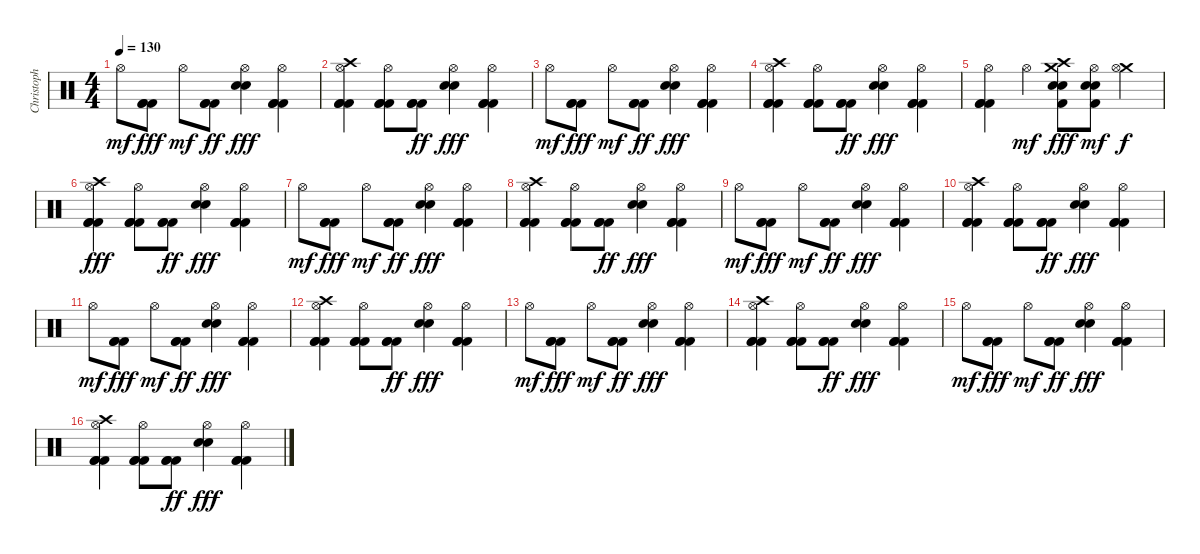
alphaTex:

\track ("Christoph Schneider" "Christoph ") {instrument percussion}
\staff {score}
\articulation defaults
\ts (4 4)
\tempo 130
\clef neutral
\ks c "Hi-Hat (open)".8{dy mf}
("Kick (hit) 2" "Kick (hit) 2" "Kick (hit) 2").8{dy fff} "Hi-Hat (open)".8{dy mf} ("Kick (hit) 2" "Kick (hit) 2" "Kick (hit) 2").8{dy ff} ("Hi-Hat (open)" "Snare (hit) 2" "Snare (hit) 2").4{dy fff} ("Hi-Hat (open)" "Kick (hit) 2" "Kick (hit) 2" "Kick (hit) 2").4 |
("Crash high (hit)" "Hi-Hat (open)" "Kick (hit) 2" "Kick (hit) 2" "Kick (hit) 2").4 ("Hi-Hat (open)" "Kick (hit) 2" "Kick (hit) 2" "Kick (hit) 2").8 ("Kick (hit) 2" "Kick (hit) 2" "Kick (hit) 2").8{dy ff} ("Hi-Hat (open)" "Snare (hit) 2" "Snare (hit) 2").4{dy fff} ("Hi-Hat (open)" "Kick (hit) 2" "Kick (hit) 2" "Kick (hit) 2").4 |
"Hi-Hat (open)".8{dy mf} ("Kick (hit) 2" "Kick (hit) 2" "Kick (hit) 2").8{dy fff} "Hi-Hat (open)".8{dy mf} ("Kick (hit) 2" "Kick (hit) 2" "Kick (hit) 2").8{dy ff} ("Hi-Hat (open)" "Snare (hit) 2" "Snare (hit) 2").4{dy fff} ("Hi-Hat (open)" "Kick (hit) 2" "Kick (hit) 2" "Kick (hit) 2").4 |
("Crash high (hit)" "Hi-Hat (open)" "Kick (hit) 2" "Kick (hit) 2" "Kick (hit) 2").4 ("Hi-Hat (open)" "Kick (hit) 2" "Kick (hit) 2" "Kick (hit) 2").8 ("Kick (hit) 2" "Kick (hit) 2" "Kick (hit) 2").8{dy ff} ("Hi-Hat (open)" "Snare (hit) 2" "Snare (hit) 2").4{dy fff} ("Hi-Hat (open)" "Kick (hit) 2" "Kick (hit) 2" "Kick (hit) 2").4 |
("Hi-Hat (open)" "Kick (hit) 2" "Kick (hit) 2" "Kick (hit) 2").4 "Hi-Hat (open)".4{dy mf} ("Crash medium (hit)" "Crash high (hit)" "Snare (hit) 2" "Snare (hit) 2" "Kick (hit) 2").8{dy fff} ("Hi-Hat (open)" "Snare (hit) 2" "Snare (hit) 2" "Kick (hit) 2").8{dy mf} ("Crash medium (hit)" "Hi-Hat (open)").4{dy f} |
("Crash high (hit)" "Hi-Hat (open)" "Kick (hit) 2" "Kick (hit) 2" "Kick (hit) 2").4{dy fff} ("Hi-Hat (open)" "Kick (hit) 2" "Kick (hit) 2" "Kick (hit) 2").8 ("Kick (hit) 2" "Kick (hit) 2" "Kick (hit) 2").8{dy ff} ("Hi-Hat (open)" "Snare (hit) 2" "Snare (hit) 2").4{dy fff} ("Hi-Hat (open)" "Kick (hit) 2" "Kick (hit) 2" "Kick (hit) 2").4 |
"Hi-Hat (open)".8{dy mf} ("Kick (hit) 2" "Kick (hit) 2" "Kick (hit) 2").8{dy fff} "Hi-Hat (open)".8{dy mf} ("Kick (hit) 2" "Kick (hit) 2" "Kick (hit) 2").8{dy ff} ("Hi-Hat (open)" "Snare (hit) 2" "Snare (hit) 2").4{dy fff} ("Hi-Hat (open)" "Kick (hit) 2" "Kick (hit) 2" "Kick (hit) 2").4 |
("Crash high (hit)" "Hi-Hat (open)" "Kick (hit) 2" "Kick (hit) 2" "Kick (hit) 2").4 ("Hi-Hat (open)" "Kick (hit) 2" "Kick (hit) 2" "Kick (hit) 2").8 ("Kick (hit) 2" "Kick (hit) 2" "Kick (hit) 2").8{dy ff} ("Hi-Hat (open)" "Snare (hit) 2" "Snare (hit) 2").4{dy fff} ("Hi-Hat (open)" "Kick (hit) 2" "Kick (hit) 2" "Kick (hit) 2").4 |
"Hi-Hat (open)".8{dy mf} ("Kick (hit) 2" "Kick (hit) 2" "Kick (hit) 2").8{dy fff} "Hi-Hat (open)".8{dy mf} ("Kick (hit) 2" "Kick (hit) 2" "Kick (hit) 2").8{dy ff} ("Hi-Hat (open)" "Snare (hit) 2" "Snare (hit) 2").4{dy fff} ("Hi-Hat (open)" "Kick (hit) 2" "Kick (hit) 2" "Kick (hit) 2").4 |
("Crash high (hit)" "Hi-Hat (open)" "Kick (hit) 2" "Kick (hit) 2" "Kick (hit) 2").4 ("Hi-Hat (open)" "Kick (hit) 2" "Kick (hit) 2" "Kick (hit) 2").8 ("Kick (hit) 2" "Kick (hit) 2" "Kick (hit) 2").8{dy ff} ("Hi-Hat (open)" "Snare (hit) 2" "Snare (hit) 2").4{dy fff} ("Hi-Hat (open)" "Kick (hit) 2" "Kick (hit) 2" "Kick (hit) 2").4 |
"Hi-Hat (open)".8{dy mf} ("Kick (hit) 2" "Kick (hit) 2" "Kick (hit) 2").8{dy fff} "Hi-Hat (open)".8{dy mf} ("Kick (hit) 2" "Kick (hit) 2" "Kick (hit) 2").8{dy ff} ("Hi-Hat (open)" "Snare (hit) 2" "Snare (hit) 2").4{dy fff} ("Hi-Hat (open)" "Kick (hit) 2" "Kick (hit) 2" "Kick (hit) 2").4 |
("Crash high (hit)" "Hi-Hat (open)" "Kick (hit) 2" "Kick (hit) 2" "Kick (hit) 2").4 ("Hi-Hat (open)" "Kick (hit) 2" "Kick (hit) 2" "Kick (hit) 2").8 ("Kick (hit) 2" "Kick (hit) 2" "Kick (hit) 2").8{dy ff} ("Hi-Hat (open)" "Snare (hit) 2" "Snare (hit) 2").4{dy fff} ("Hi-Hat (open)" "Kick (hit) 2" "Kick (hit) 2" "Kick (hit) 2").4 |
"Hi-Hat (open)".8{dy mf} ("Kick (hit) 2" "Kick (hit) 2" "Kick (hit) 2").8{dy fff} "Hi-Hat (open)".8{dy mf} ("Kick (hit) 2" "Kick (hit) 2" "Kick (hit) 2").8{dy ff} ("Hi-Hat (open)" "Snare (hit) 2" "Snare (hit) 2").4{dy fff} ("Hi-Hat (open)" "Kick (hit) 2" "Kick (hit) 2" "Kick (hit) 2").4 |
("Crash high (hit)" "Hi-Hat (open)" "Kick (hit) 2" "Kick (hit) 2" "Kick (hit) 2").4 ("Hi-Hat (open)" "Kick (hit) 2" "Kick (hit) 2" "Kick (hit) 2").8 ("Kick (hit) 2" "Kick (hit) 2" "Kick (hit) 2").8{dy ff} ("Hi-Hat (open)" "Snare (hit) 2" "Snare (hit) 2").4{dy fff} ("Hi-Hat (open)" "Kick (hit) 2" "Kick (hit) 2" "Kick (hit) 2").4 |
"Hi-Hat (open)".8{dy mf} ("Kick (hit) 2" "Kick (hit) 2" "Kick (hit) 2").8{dy fff} "Hi-Hat (open)".8{dy mf} ("Kick (hit) 2" "Kick (hit) 2" "Kick (hit) 2").8{dy ff} ("Hi-Hat (open)" "Snare (hit) 2" "Snare (hit) 2").4{dy fff} ("Hi-Hat (open)" "Kick (hit) 2" "Kick (hit) 2" "Kick (hit) 2").4 |
("Crash high (hit)" "Hi-Hat (open)" "Kick (hit) 2" "Kick (hit) 2" "Kick (hit) 2").4 ("Hi-Hat (open)" "Kick (hit) 2" "Kick (hit) 2" "Kick (hit) 2").8 ("Kick (hit) 2" "Kick (hit) 2" "Kick (hit) 2").8{dy ff} ("Hi-Hat (open)" "Snare (hit) 2" "Snare (hit) 2").4{dy fff} ("Hi-Hat (open)" "Kick (hit) 2" "Kick (hit) 2" "Kick (hit) 2").4
